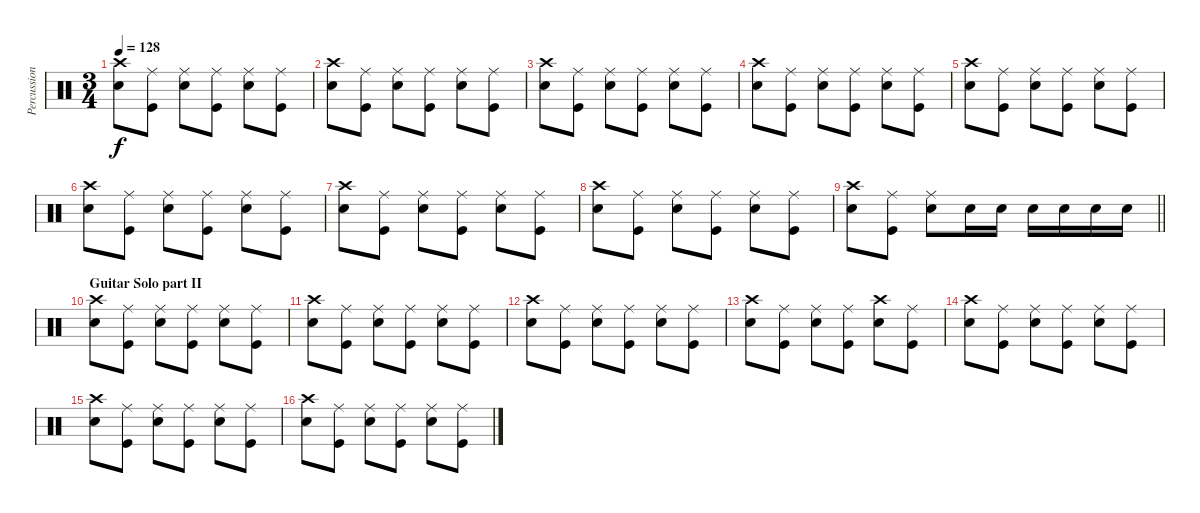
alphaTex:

\track ("Percussioni" "Percussion") {instrument percussion}
\staff {score}
\articulation defaults
\ts (3 4)
\tempo 128
\clef neutral
\ks c
("Crash high (hit)" "Snare (hit) 2").8{dy f} ("Ride (middle)" "Kick (hit)").8 ("Ride (middle)" "Snare (hit) 2").8 ("Kick (hit)" "Ride (middle)").8 ("Ride (middle)" "Snare (hit) 2").8 ("Kick (hit)" "Ride (middle)").8 |
("Crash high (hit)" "Snare (hit) 2").8 ("Ride (middle)" "Kick (hit)").8 ("Ride (middle)" "Snare (hit) 2").8 ("Kick (hit)" "Ride (middle)").8 ("Ride (middle)" "Snare (hit) 2").8 ("Kick (hit)" "Ride (middle)").8 |
("Crash high (hit)" "Snare (hit) 2").8 ("Ride (middle)" "Kick (hit)").8 ("Ride (middle)" "Snare (hit) 2").8 ("Kick (hit)" "Ride (middle)").8 ("Ride (middle)" "Snare (hit) 2").8 ("Kick (hit)" "Ride (middle)").8 |
("Crash high (hit)" "Snare (hit) 2").8 ("Ride (middle)" "Kick (hit)").8 ("Ride (middle)" "Snare (hit) 2").8 ("Kick (hit)" "Ride (middle)").8 ("Ride (middle)" "Snare (hit) 2").8 ("Kick (hit)" "Ride (middle)").8 |
("Crash high (hit)" "Snare (hit) 2").8 ("Ride (middle)" "Kick (hit)").8 ("Ride (middle)" "Snare (hit) 2").8 ("Kick (hit)" "Ride (middle)").8 ("Ride (middle)" "Snare (hit) 2").8 ("Kick (hit)" "Ride (middle)").8 |
("Crash high (hit)" "Snare (hit) 2").8 ("Ride (middle)" "Kick (hit)").8 ("Ride (middle)" "Snare (hit) 2").8 ("Kick (hit)" "Ride (middle)").8 ("Ride (middle)" "Snare (hit) 2").8 ("Kick (hit)" "Ride (middle)").8 |
("Crash high (hit)" "Snare (hit) 2").8 ("Ride (middle)" "Kick (hit)").8 ("Ride (middle)" "Snare (hit) 2").8 ("Kick (hit)" "Ride (middle)").8 ("Ride (middle)" "Snare (hit) 2").8 ("Kick (hit)" "Ride (middle)").8 |
("Crash high (hit)" "Snare (hit) 2").8 ("Ride (middle)" "Kick (hit)").8 ("Ride (middle)" "Snare (hit) 2").8 ("Kick (hit)" "Ride (middle)").8 ("Ride (middle)" "Snare (hit) 2").8 ("Kick (hit)" "Ride (middle)").8 |
\barLineRight lightlight
("Crash high (hit)" "Snare (hit) 2").8 ("Ride (middle)" "Kick (hit)").8 ("Ride (middle)" "Snare (hit) 2").8 "Snare (hit) 2".16 "Snare (hit) 2".16 "Snare (hit) 2".16 "Snare (hit) 2".16 "Snare (hit) 2".16 "Snare (hit) 2".16 |
\section ("" "Guitar Solo part II")
("Crash high (hit)" "Snare (hit) 2").8 ("Ride (middle)" "Kick (hit)").8 ("Ride (middle)" "Snare (hit) 2").8 ("Kick (hit)" "Ride (middle)").8 ("Ride (middle)" "Snare (hit) 2").8 ("Kick (hit)" "Ride (middle)").8 |
("Crash high (hit)" "Snare (hit) 2").8 ("Ride (middle)" "Kick (hit)").8 ("Ride (middle)" "Snare (hit) 2").8 ("Kick (hit)" "Ride (middle)").8 ("Ride (middle)" "Snare (hit) 2").8 ("Kick (hit)" "Ride (middle)").8 |
("Crash high (hit)" "Snare (hit) 2").8 ("Ride (middle)" "Kick (hit)").8 ("Ride (middle)" "Snare (hit) 2").8 ("Kick (hit)" "Ride (middle)").8 ("Ride (middle)" "Snare (hit) 2").8 ("Kick (hit)" "Ride (middle)").8 |
("Crash high (hit)" "Snare (hit) 2").8 ("Ride (middle)" "Kick (hit)").8 ("Ride (middle)" "Snare (hit) 2").8 ("Kick (hit)" "Ride (middle)").8 ("Crash high (hit)" "Snare (hit) 2").8 ("Kick (hit)" "Ride (middle)").8 |
("Crash high (hit)" "Snare (hit) 2").8 ("Ride (middle)" "Kick (hit)").8 ("Ride (middle)" "Snare (hit) 2").8 ("Kick (hit)" "Ride (middle)").8 ("Ride (middle)" "Snare (hit) 2").8 ("Kick (hit)" "Ride (middle)").8 |
("Crash high (hit)" "Snare (hit) 2").8 ("Ride (middle)" "Kick (hit)").8 ("Ride (middle)" "Snare (hit) 2").8 ("Kick (hit)" "Ride (middle)").8 ("Ride (middle)" "Snare (hit) 2").8 ("Kick (hit)" "Ride (middle)").8 |
("Crash high (hit)" "Snare (hit) 2").8 ("Ride (middle)" "Kick (hit)").8 ("Ride (middle)" "Snare (hit) 2").8 ("Kick (hit)" "Ride (middle)").8 ("Ride (middle)" "Snare (hit) 2").8 ("Kick (hit)" "Ride (middle)").8
